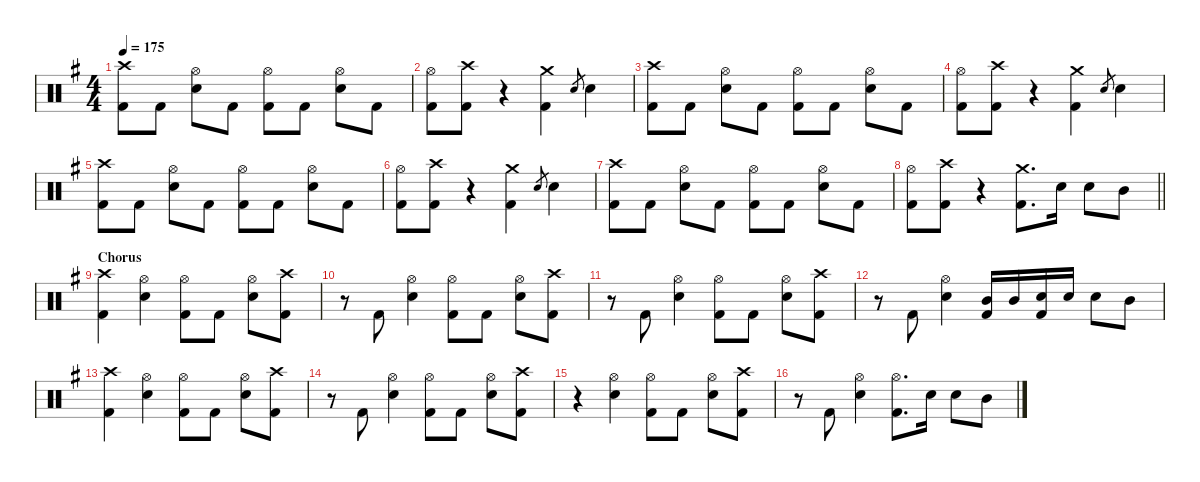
\hideDynamics
\bracketExtendMode nobrackets
\singleTrackTrackNamePolicy hidden
\multiTrackTrackNamePolicy hidden
\firstSystemTrackNameMode fullname
\firstSystemTrackNameOrientation horizontal
\otherSystemsTrackNameOrientation horizontal
\track ("Drumkit" "Drums") {instrument percussion}
\staff {score}
\articulation defaults
\ts (4 4)
\tempo 175
\clef neutral
\ks g
("Crash high (hit)"{acc forcenatural} "Kick (hit) 2"{acc forcenatural}).8{dy f beam Down} "Kick (hit) 2"{acc forcenatural}.8{dy fff beam Down} ("Hi-Hat (open)"{acc forcenatural} "Snare (hit) 2"{acc forcenatural}).8{dy f beam Down} "Kick (hit) 2"{acc forcenatural}.8{dy fff beam Down} ("Hi-Hat (open)"{acc forcenatural} "Kick (hit) 2"{acc forcenatural}).8{dy f beam Down} "Kick (hit) 2"{acc forcenatural}.8{dy fff beam Down} ("Hi-Hat (open)"{acc forcenatural} "Snare (hit) 2"{acc forcenatural}).8{dy f beam Down} "Kick (hit) 2"{acc forcenatural}.8{dy fff beam Down} |
("Hi-Hat (open)"{acc forcenatural} "Kick (hit) 2"{acc forcenatural}).8{dy f beam Down} ("Crash high (hit)"{acc forcenatural} "Kick (hit) 2"{acc forcenatural}).8{beam Down} r.4{beam Down} ("Crash medium (hit)"{acc forcenatural} "Kick (hit) 2"{acc forcenatural}).4{beam Down} "Snare (hit) 2"{acc forcenatural}.8{gr dy mf beam Up} "Snare (hit) 2"{acc forcenatural}.4{dy f beam Down} |
("Crash high (hit)"{acc forcenatural} "Kick (hit) 2"{acc forcenatural}).8{beam Down} "Kick (hit) 2"{acc forcenatural}.8{dy fff beam Down} ("Hi-Hat (open)"{acc forcenatural} "Snare (hit) 2"{acc forcenatural}).8{dy f beam Down} "Kick (hit) 2"{acc forcenatural}.8{dy fff beam Down} ("Hi-Hat (open)"{acc forcenatural} "Kick (hit) 2"{acc forcenatural}).8{dy f beam Down} "Kick (hit) 2"{acc forcenatural}.8{dy fff beam Down} ("Hi-Hat (open)"{acc forcenatural} "Snare (hit) 2"{acc forcenatural}).8{dy f beam Down} "Kick (hit) 2"{acc forcenatural}.8{dy fff beam Down} |
("Hi-Hat (open)"{acc forcenatural} "Kick (hit) 2"{acc forcenatural}).8{dy f beam Down} ("Crash high (hit)"{acc forcenatural} "Kick (hit) 2"{acc forcenatural}).8{beam Down} r.4{beam Down} ("Crash medium (hit)"{acc forcenatural} "Kick (hit) 2"{acc forcenatural}).4{beam Down} "Snare (hit) 2"{acc forcenatural}.8{gr dy mf beam Up} "Snare (hit) 2"{acc forcenatural}.4{dy f beam Down} |
("Crash high (hit)"{acc forcenatural} "Kick (hit) 2"{acc forcenatural}).8{beam Down} "Kick (hit) 2"{acc forcenatural}.8{dy fff beam Down} ("Hi-Hat (open)"{acc forcenatural} "Snare (hit) 2"{acc forcenatural}).8{dy f beam Down} "Kick (hit) 2"{acc forcenatural}.8{dy fff beam Down} ("Hi-Hat (open)"{acc forcenatural} "Kick (hit) 2"{acc forcenatural}).8{dy f beam Down} "Kick (hit) 2"{acc forcenatural}.8{dy fff beam Down} ("Hi-Hat (open)"{acc forcenatural} "Snare (hit) 2"{acc forcenatural}).8{dy f beam Down} "Kick (hit) 2"{acc forcenatural}.8{dy fff beam Down} |
("Hi-Hat (open)"{acc forcenatural} "Kick (hit) 2"{acc forcenatural}).8{dy f beam Down} ("Crash high (hit)"{acc forcenatural} "Kick (hit) 2"{acc forcenatural}).8{beam Down} r.4{beam Down} ("Crash medium (hit)"{acc forcenatural} "Kick (hit) 2"{acc forcenatural}).4{beam Down} "Snare (hit) 2"{acc forcenatural}.8{gr dy mf beam Up} "Snare (hit) 2"{acc forcenatural}.4{dy f beam Down} |
("Crash high (hit)"{acc forcenatural} "Kick (hit) 2"{acc forcenatural}).8{beam Down} "Kick (hit) 2"{acc forcenatural}.8{dy fff beam Down} ("Hi-Hat (open)"{acc forcenatural} "Snare (hit) 2"{acc forcenatural}).8{dy f beam Down} "Kick (hit) 2"{acc forcenatural}.8{dy fff beam Down} ("Hi-Hat (open)"{acc forcenatural} "Kick (hit) 2"{acc forcenatural}).8{dy f beam Down} "Kick (hit) 2"{acc forcenatural}.8{dy fff beam Down} ("Hi-Hat (open)"{acc forcenatural} "Snare (hit) 2"{acc forcenatural}).8{dy f beam Down} "Kick (hit) 2"{acc forcenatural}.8{dy fff beam Down} |
\barLineRight lightlight
("Hi-Hat (open)"{acc forcenatural} "Kick (hit) 2"{acc forcenatural}).8{dy f beam Down} ("Crash high (hit)"{acc forcenatural} "Kick (hit) 2"{acc forcenatural}).8{beam Down} r.4{beam Down} ("Crash medium (hit)"{acc forcenatural} "Kick (hit) 2"{acc forcenatural}).8{d beam Down} "Snare (hit) 2"{acc forcenatural}.16{beam Down} "Snare (hit) 2"{acc forcenatural}.8{beam Down} "Mid Tom (hit)"{acc forcenatural}.8{beam Down} |
\section ("" "Chorus")
("Crash high (hit)"{acc forcenatural} "Kick (hit) 2"{acc forcenatural}).4{beam Down} ("Hi-Hat (open)"{acc forcenatural} "Snare (hit) 2"{acc forcenatural}).4{beam Down} ("Hi-Hat (open)"{acc forcenatural} "Kick (hit) 2"{acc forcenatural}).8{beam Down} "Kick (hit) 2"{acc forcenatural}.8{dy fff beam Down} ("Hi-Hat (open)"{acc forcenatural} "Snare (hit) 2"{acc forcenatural}).8{dy f beam Down} ("Crash high (hit)"{acc forcenatural} "Kick (hit) 2"{acc forcenatural}).8{beam Down} |
r.8{beam Down} "Kick (hit) 2"{acc forcenatural}.8{dy fff beam Up} ("Hi-Hat (open)"{acc forcenatural} "Snare (hit) 2"{acc forcenatural}).4{dy f beam Down} ("Hi-Hat (open)"{acc forcenatural} "Kick (hit) 2"{acc forcenatural}).8{beam Down} "Kick (hit) 2"{acc forcenatural}.8{dy fff beam Down} ("Hi-Hat (open)"{acc forcenatural} "Snare (hit) 2"{acc forcenatural}).8{dy f beam Down} ("Crash high (hit)"{acc forcenatural} "Kick (hit) 2"{acc forcenatural}).8{beam Down} |
r.8{beam Down} "Kick (hit) 2"{acc forcenatural}.8{dy fff beam Up} ("Hi-Hat (open)"{acc forcenatural} "Snare (hit) 2"{acc forcenatural}).4{dy f beam Down} ("Hi-Hat (open)"{acc forcenatural} "Kick (hit) 2"{acc forcenatural}).8{beam Down} "Kick (hit) 2"{acc forcenatural}.8{dy fff beam Down} ("Hi-Hat (open)"{acc forcenatural} "Snare (hit) 2"{acc forcenatural}).8{dy f beam Down} ("Crash high (hit)"{acc forcenatural} "Kick (hit) 2"{acc forcenatural}).8{beam Down} |
r.8{beam Down} "Kick (hit) 2"{acc forcenatural}.8{dy fff beam Up} ("Hi-Hat (open)"{acc forcenatural} "Snare (hit) 2"{acc forcenatural}).4{dy f beam Down} ("Mid Tom (hit)"{acc forcenatural} "Kick (hit) 2"{acc forcenatural}).16{beam Up} "Mid Tom (hit)"{acc forcenatural}.16{beam Up} ("Snare (hit) 2"{acc forcenatural} "Kick (hit) 2"{acc forcenatural}).16{beam Up} "Snare (hit) 2"{acc forcenatural}.16{beam Up} "Snare (hit) 2"{acc forcenatural}.8{beam Down} "Mid Tom (hit)"{acc forcenatural}.8{beam Down} |
("Crash high (hit)"{acc forcenatural} "Kick (hit) 2"{acc forcenatural}).4{beam Down} ("Hi-Hat (open)"{acc forcenatural} "Snare (hit) 2"{acc forcenatural}).4{beam Down} ("Hi-Hat (open)"{acc forcenatural} "Kick (hit) 2"{acc forcenatural}).8{beam Down} "Kick (hit) 2"{acc forcenatural}.8{dy fff beam Down} ("Hi-Hat (open)"{acc forcenatural} "Snare (hit) 2"{acc forcenatural}).8{dy f beam Down} ("Crash high (hit)"{acc forcenatural} "Kick (hit) 2"{acc forcenatural}).8{beam Down} |
r.8{beam Down} "Kick (hit) 2"{acc forcenatural}.8{dy fff beam Up} ("Hi-Hat (open)"{acc forcenatural} "Snare (hit) 2"{acc forcenatural}).4{dy f beam Down} ("Hi-Hat (open)"{acc forcenatural} "Kick (hit) 2"{acc forcenatural}).8{beam Down} "Kick (hit) 2"{acc forcenatural}.8{dy fff beam Down} ("Hi-Hat (open)"{acc forcenatural} "Snare (hit) 2"{acc forcenatural}).8{dy f beam Down} ("Crash high (hit)"{acc forcenatural} "Kick (hit) 2"{acc forcenatural}).8{beam Down} |
r.4{beam Down} ("Hi-Hat (open)"{acc forcenatural} "Snare (hit) 2"{acc forcenatural}).4{beam Down} ("Hi-Hat (open)"{acc forcenatural} "Kick (hit) 2"{acc forcenatural}).8{beam Down} "Kick (hit) 2"{acc forcenatural}.8{dy fff beam Down} ("Hi-Hat (open)"{acc forcenatural} "Snare (hit) 2"{acc forcenatural}).8{dy f beam Down} ("Crash high (hit)"{acc forcenatural} "Kick (hit) 2"{acc forcenatural}).8{beam Down} |
r.8{beam Down} "Kick (hit) 2"{acc forcenatural}.8{dy fff beam Up} ("Hi-Hat (open)"{acc forcenatural} "Snare (hit) 2"{acc forcenatural}).4{dy f beam Down} ("Hi-Hat (open)"{acc forcenatural} "Kick (hit) 2"{acc forcenatural}).8{d beam Down} "Snare (hit) 2"{acc forcenatural}.16{beam Down} "Snare (hit) 2"{acc forcenatural}.8{beam Down} "Mid Tom (hit)"{acc forcenatural}.8{beam Down}
